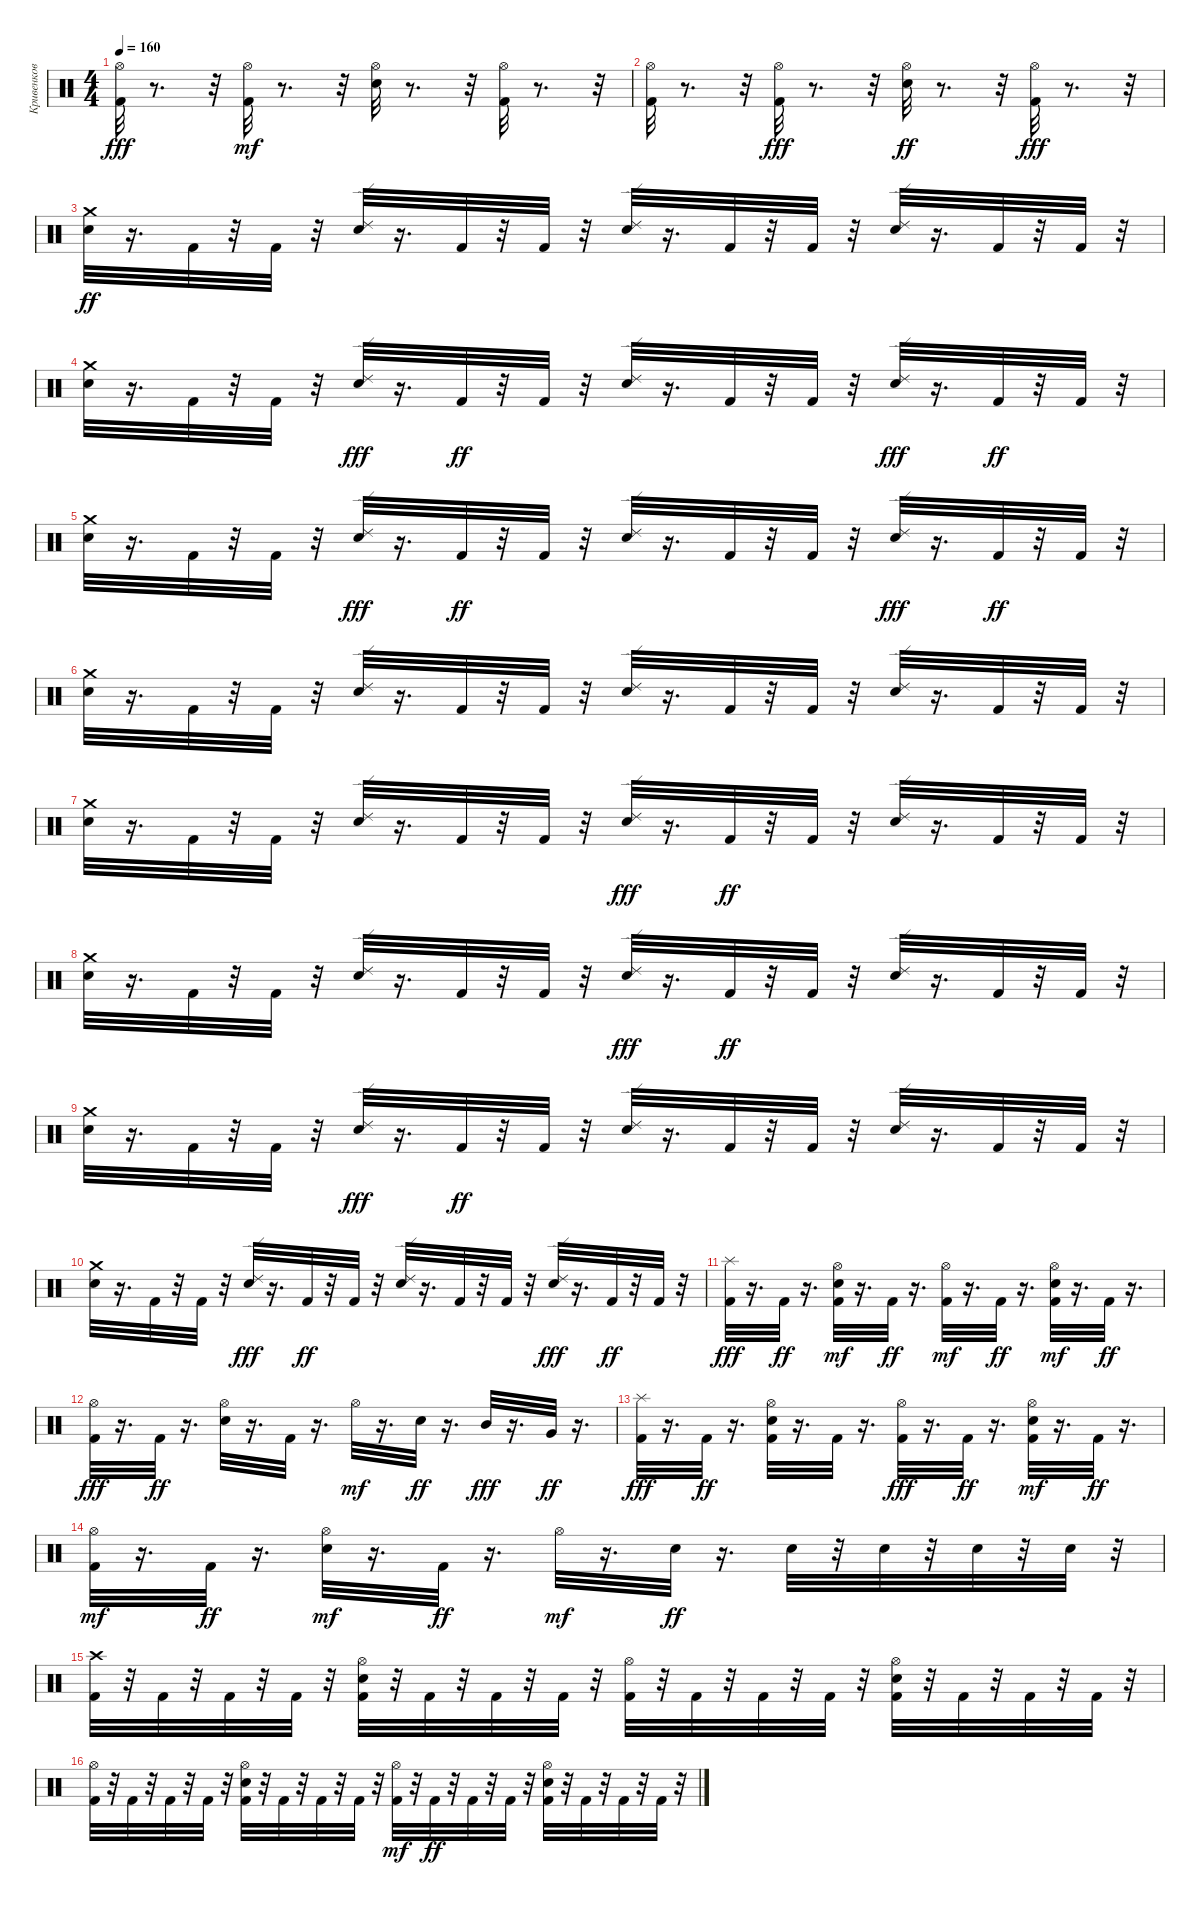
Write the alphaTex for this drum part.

\track ("Кривенков" "Кривенков") {instrument percussion}
\staff {score}
\articulation defaults
\ts (4 4)
\tempo 160
\clef neutral
\ks c
("Hi-Hat (open)" "Kick (hit) 2").32{dy fff} r.8{d} r.32 ("Kick (hit) 2" "Hi-Hat (open)").32{dy mf} r.8{d} r.32 ("Electric Snare (hit)" "Hi-Hat (open)").32 r.8{d} r.32 ("Kick (hit) 2" "Hi-Hat (open)").32 r.8{d} r.32 |
("Kick (hit) 2" "Hi-Hat (open)").32 r.8{d} r.32 ("Hi-Hat (open)" "Kick (hit) 2").32{dy fff} r.8{d} r.32 ("Hi-Hat (open)" "Electric Snare (hit)").32{dy ff} r.8{d} r.32 ("Hi-Hat (open)" "Kick (hit) 2").32{dy fff} r.8{d} r.32 |
("Crash medium (hit)" "Electric Snare (hit)").32{dy ff} r.16{d} "Kick (hit) 2".32 r.32 "Kick (hit) 2".32 r.32 ("Ride (edge) 2" "Electric Snare (hit)").32 r.16{d} "Kick (hit) 2".32 r.32 "Kick (hit) 2".32 r.32 ("Ride (edge) 2" "Electric Snare (hit)").32 r.16{d} "Kick (hit) 2".32 r.32 "Kick (hit) 2".32 r.32 ("Ride (edge) 2" "Electric Snare (hit)").32 r.16{d} "Kick (hit) 2".32 r.32 "Kick (hit) 2".32 r.32 |
("Crash medium (hit)" "Electric Snare (hit)").32 r.16{d} "Kick (hit) 2".32 r.32 "Kick (hit) 2".32 r.32 ("Electric Snare (hit)" "Ride (edge) 2").32{dy fff} r.16{d} "Kick (hit) 2".32{dy ff} r.32 "Kick (hit) 2".32 r.32 ("Ride (edge) 2" "Electric Snare (hit)").32 r.16{d} "Kick (hit) 2".32 r.32 "Kick (hit) 2".32 r.32 ("Electric Snare (hit)" "Ride (edge) 2").32{dy fff} r.16{d} "Kick (hit) 2".32{dy ff} r.32 "Kick (hit) 2".32 r.32 |
("Crash medium (hit)" "Electric Snare (hit)").32 r.16{d} "Kick (hit) 2".32 r.32 "Kick (hit) 2".32 r.32 ("Electric Snare (hit)" "Ride (edge) 2").32{dy fff} r.16{d} "Kick (hit) 2".32{dy ff} r.32 "Kick (hit) 2".32 r.32 ("Ride (edge) 2" "Electric Snare (hit)").32 r.16{d} "Kick (hit) 2".32 r.32 "Kick (hit) 2".32 r.32 ("Electric Snare (hit)" "Ride (edge) 2").32{dy fff} r.16{d} "Kick (hit) 2".32{dy ff} r.32 "Kick (hit) 2".32 r.32 |
("Electric Snare (hit)" "Crash medium (hit)").32 r.16{d} "Kick (hit) 2".32 r.32 "Kick (hit) 2".32 r.32 ("Ride (edge) 2" "Electric Snare (hit)").32 r.16{d} "Kick (hit) 2".32 r.32 "Kick (hit) 2".32 r.32 ("Ride (edge) 2" "Electric Snare (hit)").32 r.16{d} "Kick (hit) 2".32 r.32 "Kick (hit) 2".32 r.32 ("Ride (edge) 2" "Electric Snare (hit)").32 r.16{d} "Kick (hit) 2".32 r.32 "Kick (hit) 2".32 r.32 |
("Electric Snare (hit)" "Crash medium (hit)").32 r.16{d} "Kick (hit) 2".32 r.32 "Kick (hit) 2".32 r.32 ("Ride (edge) 2" "Electric Snare (hit)").32 r.16{d} "Kick (hit) 2".32 r.32 "Kick (hit) 2".32 r.32 ("Electric Snare (hit)" "Ride (edge) 2").32{dy fff} r.16{d} "Kick (hit) 2".32{dy ff} r.32 "Kick (hit) 2".32 r.32 ("Ride (edge) 2" "Electric Snare (hit)").32 r.16{d} "Kick (hit) 2".32 r.32 "Kick (hit) 2".32 r.32 |
("Electric Snare (hit)" "Crash medium (hit)").32 r.16{d} "Kick (hit) 2".32 r.32 "Kick (hit) 2".32 r.32 ("Ride (edge) 2" "Electric Snare (hit)").32 r.16{d} "Kick (hit) 2".32 r.32 "Kick (hit) 2".32 r.32 ("Electric Snare (hit)" "Ride (edge) 2").32{dy fff} r.16{d} "Kick (hit) 2".32{dy ff} r.32 "Kick (hit) 2".32 r.32 ("Ride (edge) 2" "Electric Snare (hit)").32 r.16{d} "Kick (hit) 2".32 r.32 "Kick (hit) 2".32 r.32 |
("Electric Snare (hit)" "Crash medium (hit)").32 r.16{d} "Kick (hit) 2".32 r.32 "Kick (hit) 2".32 r.32 ("Electric Snare (hit)" "Ride (edge) 2").32{dy fff} r.16{d} "Kick (hit) 2".32{dy ff} r.32 "Kick (hit) 2".32 r.32 ("Ride (edge) 2" "Electric Snare (hit)").32 r.16{d} "Kick (hit) 2".32 r.32 "Kick (hit) 2".32 r.32 ("Ride (edge) 2" "Electric Snare (hit)").32 r.16{d} "Kick (hit) 2".32 r.32 "Kick (hit) 2".32 r.32 |
("Electric Snare (hit)" "Crash medium (hit)").32 r.16{d} "Kick (hit) 2".32 r.32 "Kick (hit) 2".32 r.32 ("Electric Snare (hit)" "Ride (edge) 2").32{dy fff} r.16{d} "Kick (hit) 2".32{dy ff} r.32 "Kick (hit) 2".32 r.32 ("Ride (edge) 2" "Electric Snare (hit)").32 r.16{d} "Kick (hit) 2".32 r.32 "Kick (hit) 2".32 r.32 ("Electric Snare (hit)" "Ride (edge) 2").32{dy fff} r.16{d} "Kick (hit) 2".32{dy ff} r.32 "Kick (hit) 2".32 r.32 |
("Splash (hit)" "Kick (hit) 2").32{dy fff} r.16{d} "Kick (hit) 2".32{dy ff} r.16{d} ("Kick (hit) 2" "Electric Snare (hit)" "Hi-Hat (open)").32{dy mf} r.16{d} "Kick (hit) 2".32{dy ff} r.16{d} ("Kick (hit) 2" "Hi-Hat (open)").32{dy mf} r.16{d} "Kick (hit) 2".32{dy ff} r.16{d} ("Kick (hit) 2" "Electric Snare (hit)" "Hi-Hat (open)").32{dy mf} r.16{d} "Kick (hit) 2".32{dy ff} r.16{d} |
("Hi-Hat (open)" "Kick (hit) 2").32{dy fff} r.16{d} "Kick (hit) 2".32{dy ff} r.16{d} ("Hi-Hat (open)" "Electric Snare (hit)").32 r.16{d} "Kick (hit) 2".32 r.16{d} "Hi-Hat (open)".32{dy mf} r.16{d} "Electric Snare (hit)".32{dy ff} r.16{d} "Mid Tom (hit)".32{dy fff} r.16{d} "Very Low Tom (hit)".32{dy ff} r.16{d} |
("Splash (hit)" "Kick (hit) 2").32{dy fff} r.16{d} "Kick (hit) 2".32{dy ff} r.16{d} ("Kick (hit) 2" "Hi-Hat (open)" "Electric Snare (hit)").32 r.16{d} "Kick (hit) 2".32 r.16{d} ("Hi-Hat (open)" "Kick (hit) 2").32{dy fff} r.16{d} "Kick (hit) 2".32{dy ff} r.16{d} ("Kick (hit) 2" "Electric Snare (hit)" "Hi-Hat (open)").32{dy mf} r.16{d} "Kick (hit) 2".32{dy ff} r.16{d} |
("Kick (hit) 2" "Hi-Hat (open)").32{dy mf} r.16{d} "Kick (hit) 2".32{dy ff} r.16{d} ("Electric Snare (hit)" "Hi-Hat (open)").32{dy mf} r.16{d} "Kick (hit) 2".32{dy ff} r.16{d} "Hi-Hat (open)".32{dy mf} r.16{d} "Electric Snare (hit)".32{dy ff} r.16{d} "Electric Snare (hit)".32 r.32 "Electric Snare (hit)".32 r.32 "Electric Snare (hit)".32 r.32 "Electric Snare (hit)".32 r.32 |
("Kick (hit) 2" "Crash high (hit)").32 r.32 "Kick (hit) 2".32 r.32 "Kick (hit) 2".32 r.32 "Kick (hit) 2".32 r.32 ("Electric Snare (hit)" "Hi-Hat (open)" "Kick (hit) 2").32 r.32 "Kick (hit) 2".32 r.32 "Kick (hit) 2".32 r.32 "Kick (hit) 2".32 r.32 ("Hi-Hat (open)" "Kick (hit) 2").32 r.32 "Kick (hit) 2".32 r.32 "Kick (hit) 2".32 r.32 "Kick (hit) 2".32 r.32 ("Kick (hit) 2" "Hi-Hat (open)" "Electric Snare (hit)").32 r.32 "Kick (hit) 2".32 r.32 "Kick (hit) 2".32 r.32 "Kick (hit) 2".32 r.32 |
("Hi-Hat (open)" "Kick (hit) 2").32 r.32 "Kick (hit) 2".32 r.32 "Kick (hit) 2".32 r.32 "Kick (hit) 2".32 r.32 ("Hi-Hat (open)" "Electric Snare (hit)" "Kick (hit) 2").32 r.32 "Kick (hit) 2".32 r.32 "Kick (hit) 2".32 r.32 "Kick (hit) 2".32 r.32 ("Kick (hit) 2" "Hi-Hat (open)").32{dy mf} r.32 "Kick (hit) 2".32{dy ff} r.32 "Kick (hit) 2".32 r.32 "Kick (hit) 2".32 r.32 ("Electric Snare (hit)" "Hi-Hat (open)" "Kick (hit) 2").32 r.32 "Kick (hit) 2".32 r.32 "Kick (hit) 2".32 r.32 "Kick (hit) 2".32 r.32
